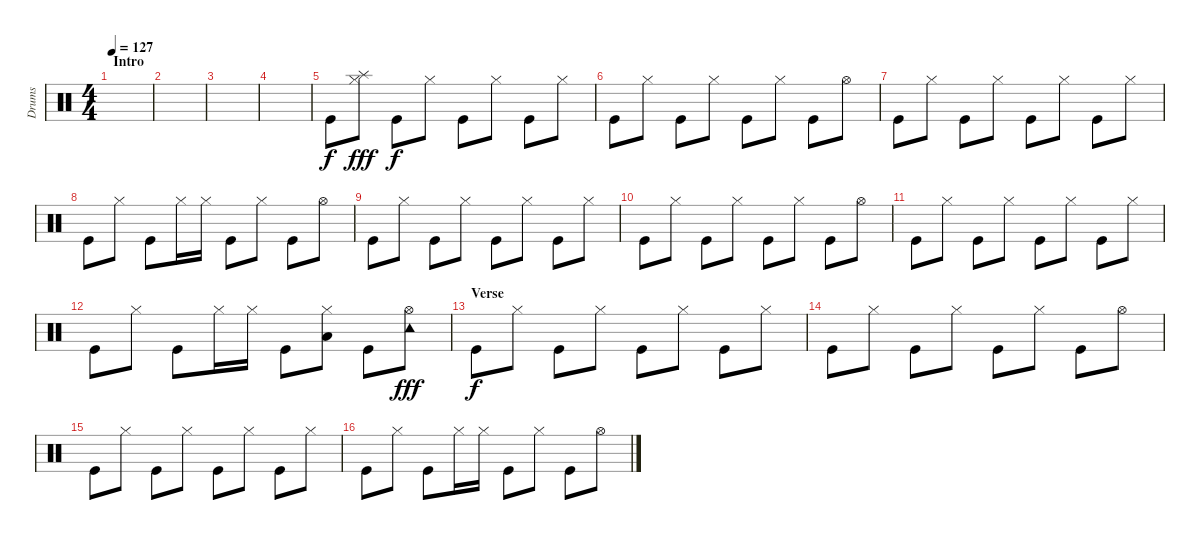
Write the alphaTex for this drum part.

\track ("Drums" "Drums") {instrument percussion}
\staff {score}
\articulation defaults
\ts (4 4)
\section ("" "Intro")
\tempo 127
\clef neutral
\ks c
|
|
|
|
"Kick (hit)".8 ("Splash (hit)" "Hi-Hat (closed)").8{dy fff} "Kick (hit)".8{dy f} "Hi-Hat (closed)".8 "Kick (hit)".8 "Hi-Hat (closed)".8 "Kick (hit)".8 "Hi-Hat (closed)".8 |
"Kick (hit)".8 "Hi-Hat (closed)".8 "Kick (hit)".8 "Hi-Hat (closed)".8 "Kick (hit)".8 "Hi-Hat (closed)".8 "Kick (hit)".8 "Hi-Hat (open)".8 |
"Kick (hit)".8 "Hi-Hat (closed)".8 "Kick (hit)".8 "Hi-Hat (closed)".8 "Kick (hit)".8 "Hi-Hat (closed)".8 "Kick (hit)".8 "Hi-Hat (closed)".8 |
"Kick (hit)".8 "Hi-Hat (closed)".8 "Kick (hit)".8 "Hi-Hat (closed)".16 "Hi-Hat (closed)".16 "Kick (hit)".8 "Hi-Hat (closed)".8 "Kick (hit)".8 "Hi-Hat (open)".8 |
"Kick (hit)".8 "Hi-Hat (closed)".8 "Kick (hit)".8 "Hi-Hat (closed)".8 "Kick (hit)".8 "Hi-Hat (closed)".8 "Kick (hit)".8 "Hi-Hat (closed)".8 |
"Kick (hit)".8 "Hi-Hat (closed)".8 "Kick (hit)".8 "Hi-Hat (closed)".8 "Kick (hit)".8 "Hi-Hat (closed)".8 "Kick (hit)".8 "Hi-Hat (open)".8 |
"Kick (hit)".8 "Hi-Hat (closed)".8 "Kick (hit)".8 "Hi-Hat (closed)".8 "Kick (hit)".8 "Hi-Hat (closed)".8 "Kick (hit)".8 "Hi-Hat (closed)".8 |
"Kick (hit)".8 "Hi-Hat (closed)".8 "Kick (hit)".8 "Hi-Hat (closed)".16 "Hi-Hat (closed)".16 "Kick (hit)".8 ("Hi-Hat (closed)" "Low Tom (hit)").8 "Kick (hit)".8 ("Hi-Hat (open)" "Tambourine (hit)").8{dy fff} |
\section ("" "Verse")
"Kick (hit)".8{dy f} "Hi-Hat (closed)".8 "Kick (hit)".8 "Hi-Hat (closed)".8 "Kick (hit)".8 "Hi-Hat (closed)".8 "Kick (hit)".8 "Hi-Hat (closed)".8 |
"Kick (hit)".8 "Hi-Hat (closed)".8 "Kick (hit)".8 "Hi-Hat (closed)".8 "Kick (hit)".8 "Hi-Hat (closed)".8 "Kick (hit)".8 "Hi-Hat (open)".8 |
"Kick (hit)".8 "Hi-Hat (closed)".8 "Kick (hit)".8 "Hi-Hat (closed)".8 "Kick (hit)".8 "Hi-Hat (closed)".8 "Kick (hit)".8 "Hi-Hat (closed)".8 |
"Kick (hit)".8 "Hi-Hat (closed)".8 "Kick (hit)".8 "Hi-Hat (closed)".16 "Hi-Hat (closed)".16 "Kick (hit)".8 "Hi-Hat (closed)".8 "Kick (hit)".8 "Hi-Hat (open)".8
